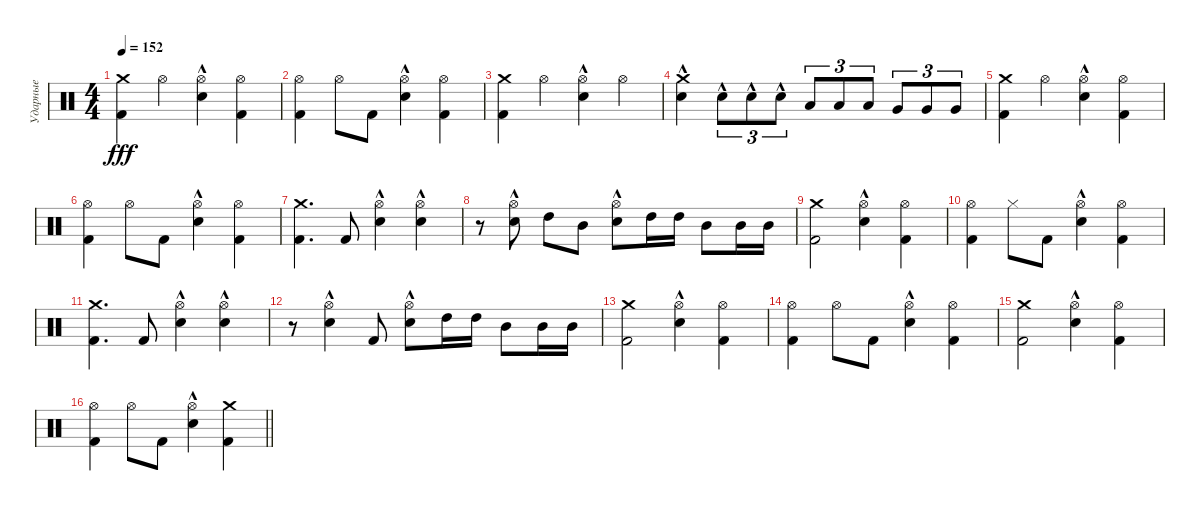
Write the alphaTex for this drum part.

\track ("Ударные" "Ударные") {instrument percussion}
\staff {score}
\articulation defaults
\ts (4 4)
\tempo 152
\clef neutral
\ks c
("Crash medium (hit)" "Kick (hit) 2").4{dy fff} "Hi-Hat (open)".4 ("Hi-Hat (open)" "Electric Snare (hit)"{hac}).4 ("Hi-Hat (open)" "Kick (hit) 2").4 |
("Hi-Hat (open)" "Kick (hit) 2").4 "Hi-Hat (open)".8 "Kick (hit) 2".8 ("Hi-Hat (open)" "Electric Snare (hit)"{hac}).4 ("Hi-Hat (open)" "Kick (hit) 2").4 |
("Crash medium (hit)" "Kick (hit) 2").4 "Hi-Hat (open)".4 ("Hi-Hat (open)" "Electric Snare (hit)"{hac}).4 "Hi-Hat (open)".4 |
("Crash medium (hit)" "Electric Snare (hit)"{hac}).4 "Electric Snare (hit)"{hac}.8{tu (3 2)} "Electric Snare (hit)"{hac}.8{tu (3 2)} "Electric Snare (hit)"{hac}.8{tu (3 2)} "Low Tom (hit)".8{tu (3 2)} "Low Tom (hit)".8{tu (3 2)} "Low Tom (hit)".8{tu (3 2)} "Very Low Tom (hit)".8{tu (3 2)} "Very Low Tom (hit)".8{tu (3 2)} "Very Low Tom (hit)".8{tu (3 2)} |
("Crash medium (hit)" "Kick (hit) 2").4 "Hi-Hat (open)".4 ("Hi-Hat (open)" "Electric Snare (hit)"{hac}).4 ("Hi-Hat (open)" "Kick (hit) 2").4 |
("Hi-Hat (open)" "Kick (hit) 2").4 "Hi-Hat (open)".8 "Kick (hit) 2".8 ("Hi-Hat (open)" "Electric Snare (hit)"{hac}).4 ("Hi-Hat (open)" "Kick (hit) 2").4 |
("Crash medium (hit)" "Kick (hit) 2").4{d} "Kick (hit) 2".8 ("Hi-Hat (open)" "Electric Snare (hit)"{hac}).4 ("Hi-Hat (open)" "Electric Snare (hit)"{hac}).4 |
r.8 ("Hi-Hat (open)" "Electric Snare (hit)"{hac}).8 "High Tom (hit)".8 "Mid Tom (hit)".8 ("Hi-Hat (open)" "Electric Snare (hit)"{hac}).8 "High Tom (hit)".16 "High Tom (hit)".16 "Mid Tom (hit)".8 "Mid Tom (hit)".16 "Mid Tom (hit)".16 |
("Crash medium (hit)" "Kick (hit) 2").2 ("Hi-Hat (open)" "Electric Snare (hit)"{hac}).4 ("Hi-Hat (open)" "Kick (hit) 2").4 |
("Hi-Hat (open)" "Kick (hit) 2").4 "Hi-Hat (closed)".8 "Kick (hit) 2".8 ("Hi-Hat (open)" "Electric Snare (hit)"{hac}).4 ("Hi-Hat (open)" "Kick (hit) 2").4 |
("Crash medium (hit)" "Kick (hit) 2").4{d} "Kick (hit) 2".8 ("Hi-Hat (open)" "Electric Snare (hit)"{hac}).4 ("Hi-Hat (open)" "Electric Snare (hit)"{hac}).4 |
r.8 ("Hi-Hat (open)" "Electric Snare (hit)"{hac}).4 "Kick (hit) 2".8 ("Hi-Hat (open)" "Electric Snare (hit)"{hac}).8 "High Tom (hit)".16 "High Tom (hit)".16 "Mid Tom (hit)".8 "Mid Tom (hit)".16 "Mid Tom (hit)".16 |
("Crash medium (hit)" "Kick (hit) 2").2 ("Hi-Hat (open)" "Electric Snare (hit)"{hac}).4 ("Hi-Hat (open)" "Kick (hit) 2").4 |
("Hi-Hat (open)" "Kick (hit) 2").4 "Hi-Hat (open)".8 "Kick (hit) 2".8 ("Hi-Hat (open)" "Electric Snare (hit)"{hac}).4 ("Hi-Hat (open)" "Kick (hit) 2").4 |
("Crash medium (hit)" "Kick (hit) 2").2 ("Hi-Hat (open)" "Electric Snare (hit)"{hac}).4 ("Hi-Hat (open)" "Kick (hit) 2").4 |
\barLineRight lightlight
("Hi-Hat (open)" "Kick (hit) 2").4 "Hi-Hat (open)".8 "Kick (hit) 2".8 ("Hi-Hat (open)" "Electric Snare (hit)"{hac}).4 ("Crash medium (hit)" "Kick (hit) 2").4
